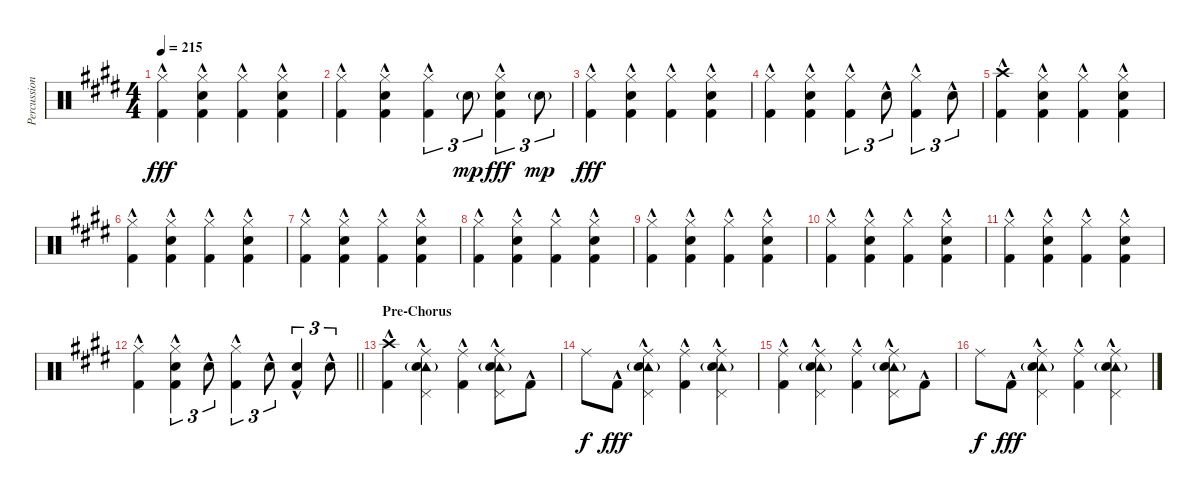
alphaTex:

\track ("Percussion" "Percussion") {instrument percussion}
\staff {score}
\articulation defaults
\ts (4 4)
\tempo 215
\clef neutral
\ks e
("Hi-Hat (closed)" "Kick (hit) 2"{hac}).4{dy fff} ("Hi-Hat (closed)" "Electric Snare (hit)"{hac} "Kick (hit) 2"{hac}).4 ("Hi-Hat (closed)" "Kick (hit) 2"{hac}).4 ("Hi-Hat (closed)" "Electric Snare (hit)"{hac} "Kick (hit) 2"{hac}).4 |
("Hi-Hat (closed)" "Kick (hit) 2"{hac}).4 ("Hi-Hat (closed)" "Electric Snare (hit)"{hac} "Kick (hit) 2"{hac}).4 ("Hi-Hat (closed)" "Kick (hit) 2"{hac}).4{tu (3 2)} "Electric Snare (hit)"{g}.8{tu (3 2) dy mp} ("Hi-Hat (closed)" "Electric Snare (hit)"{hac} "Kick (hit) 2"{hac}).4{tu (3 2) dy fff} "Electric Snare (hit)"{g}.8{tu (3 2) dy mp} |
("Hi-Hat (closed)" "Kick (hit) 2"{hac}).4{dy fff} ("Hi-Hat (closed)" "Electric Snare (hit)"{hac} "Kick (hit) 2"{hac}).4 ("Hi-Hat (closed)" "Kick (hit) 2"{hac}).4 ("Hi-Hat (closed)" "Electric Snare (hit)"{hac} "Kick (hit) 2"{hac}).4 |
("Hi-Hat (closed)" "Kick (hit) 2"{hac}).4 ("Hi-Hat (closed)" "Electric Snare (hit)"{hac} "Kick (hit) 2"{hac}).4 ("Hi-Hat (closed)" "Kick (hit) 2"{hac}).4{tu (3 2)} "Electric Snare (hit)"{hac}.8{tu (3 2)} ("Hi-Hat (closed)" "Kick (hit) 2"{hac}).4{tu (3 2)} "Electric Snare (hit)"{hac}.8{tu (3 2)} |
("Crash high (hit)" "Kick (hit) 2"{hac}).4 ("Hi-Hat (closed)" "Electric Snare (hit)"{hac} "Kick (hit) 2"{hac}).4 ("Hi-Hat (closed)" "Kick (hit) 2"{hac}).4 ("Hi-Hat (closed)" "Electric Snare (hit)"{hac} "Kick (hit) 2"{hac}).4 |
("Hi-Hat (closed)" "Kick (hit) 2"{hac}).4 ("Hi-Hat (closed)" "Electric Snare (hit)"{hac} "Kick (hit) 2"{hac}).4 ("Hi-Hat (closed)" "Kick (hit) 2"{hac}).4 ("Hi-Hat (closed)" "Electric Snare (hit)"{hac} "Kick (hit) 2"{hac}).4 |
("Hi-Hat (closed)" "Kick (hit) 2"{hac}).4 ("Hi-Hat (closed)" "Electric Snare (hit)"{hac} "Kick (hit) 2"{hac}).4 ("Hi-Hat (closed)" "Kick (hit) 2"{hac}).4 ("Hi-Hat (closed)" "Electric Snare (hit)"{hac} "Kick (hit) 2"{hac}).4 |
("Hi-Hat (closed)" "Kick (hit) 2"{hac}).4 ("Hi-Hat (closed)" "Electric Snare (hit)"{hac} "Kick (hit) 2"{hac}).4 ("Hi-Hat (closed)" "Kick (hit) 2"{hac}).4 ("Hi-Hat (closed)" "Electric Snare (hit)"{hac} "Kick (hit) 2"{hac}).4 |
("Hi-Hat (closed)" "Kick (hit) 2"{hac}).4 ("Hi-Hat (closed)" "Electric Snare (hit)"{hac} "Kick (hit) 2"{hac}).4 ("Hi-Hat (closed)" "Kick (hit) 2"{hac}).4 ("Hi-Hat (closed)" "Electric Snare (hit)"{hac} "Kick (hit) 2"{hac}).4 |
("Hi-Hat (closed)" "Kick (hit) 2"{hac}).4 ("Hi-Hat (closed)" "Electric Snare (hit)"{hac} "Kick (hit) 2"{hac}).4 ("Hi-Hat (closed)" "Kick (hit) 2"{hac}).4 ("Hi-Hat (closed)" "Electric Snare (hit)"{hac} "Kick (hit) 2"{hac}).4 |
("Hi-Hat (closed)" "Kick (hit) 2"{hac}).4 ("Hi-Hat (closed)" "Electric Snare (hit)"{hac} "Kick (hit) 2"{hac}).4 ("Hi-Hat (closed)" "Kick (hit) 2"{hac}).4 ("Hi-Hat (closed)" "Electric Snare (hit)"{hac} "Kick (hit) 2"{hac}).4 |
\barLineRight lightlight
("Hi-Hat (closed)" "Kick (hit) 2"{hac}).4 ("Hi-Hat (closed)" "Electric Snare (hit)"{hac} "Kick (hit) 2"{hac}).4{tu (3 2)} "Electric Snare (hit)"{hac}.8{tu (3 2)} ("Hi-Hat (closed)" "Kick (hit) 2"{hac}).4{tu (3 2)} "Electric Snare (hit)"{hac}.8{tu (3 2)} ("Electric Snare (hit)"{hac} "Kick (hit) 2"{hac}).4{tu (3 2)} "Electric Snare (hit)"{hac}.8{tu (3 2)} |
\section ("" "Pre-Chorus")
("Crash high (hit)" "Kick (hit) 2"{hac}).4 ("Tambourine (hit)"{g} "Pedal Hi-Hat (hit)" "Ride (middle)" "Electric Snare (hit)"{hac}).4 ("Ride (middle)" "Kick (hit) 2"{hac}).4 ("Tambourine (hit)"{g} "Pedal Hi-Hat (hit)" "Ride (middle)" "Electric Snare (hit)"{hac}).8 "Kick (hit) 2"{hac}.8 |
"Ride (middle)".8{dy f} "Kick (hit) 2"{hac}.8{dy fff} ("Tambourine (hit)"{g} "Pedal Hi-Hat (hit)" "Ride (middle)" "Electric Snare (hit)"{hac}).4 ("Ride (middle)" "Kick (hit) 2"{hac}).4 ("Tambourine (hit)"{g} "Pedal Hi-Hat (hit)" "Ride (middle)" "Electric Snare (hit)"{hac}).4 |
("Ride (middle)" "Kick (hit) 2"{hac}).4 ("Tambourine (hit)"{g} "Pedal Hi-Hat (hit)" "Ride (middle)" "Electric Snare (hit)"{hac}).4 ("Ride (middle)" "Kick (hit) 2"{hac}).4 ("Tambourine (hit)"{g} "Pedal Hi-Hat (hit)" "Ride (middle)" "Electric Snare (hit)"{hac}).8 "Kick (hit) 2"{hac}.8 |
"Ride (middle)".8{dy f} "Kick (hit) 2"{hac}.8{dy fff} ("Tambourine (hit)"{g} "Pedal Hi-Hat (hit)" "Ride (middle)" "Electric Snare (hit)"{hac}).4 ("Ride (middle)" "Kick (hit) 2"{hac}).4 ("Tambourine (hit)"{g} "Pedal Hi-Hat (hit)" "Ride (middle)" "Electric Snare (hit)"{hac}).4
